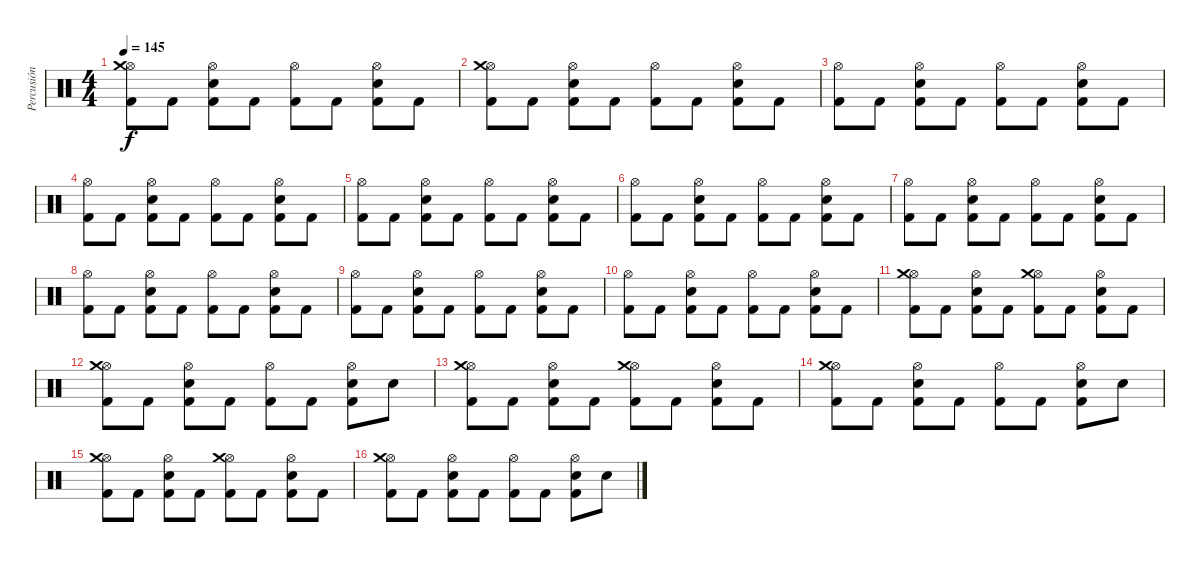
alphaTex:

\track ("Percusión" "Percusión") {instrument percussion}
\staff {score}
\articulation defaults
\ts (4 4)
\tempo 145
\clef neutral
\ks c
("Hi-Hat (open)" "Kick (hit) 2" "Crash medium (hit)").8{dy f} "Kick (hit) 2".8 ("Hi-Hat (open)" "Electric Snare (hit)" "Kick (hit) 2").8 "Kick (hit) 2".8 ("Hi-Hat (open)" "Kick (hit) 2").8 "Kick (hit) 2".8 ("Hi-Hat (open)" "Electric Snare (hit)" "Kick (hit) 2").8 "Kick (hit) 2".8 |
("Hi-Hat (open)" "Kick (hit) 2" "Crash medium (hit)").8 "Kick (hit) 2".8 ("Hi-Hat (open)" "Electric Snare (hit)" "Kick (hit) 2").8 "Kick (hit) 2".8 ("Hi-Hat (open)" "Kick (hit) 2").8 "Kick (hit) 2".8 ("Hi-Hat (open)" "Electric Snare (hit)" "Kick (hit) 2").8 "Kick (hit) 2".8 |
("Hi-Hat (open)" "Kick (hit) 2").8 "Kick (hit) 2".8 ("Hi-Hat (open)" "Electric Snare (hit)" "Kick (hit) 2").8 "Kick (hit) 2".8 ("Hi-Hat (open)" "Kick (hit) 2").8 "Kick (hit) 2".8 ("Hi-Hat (open)" "Electric Snare (hit)" "Kick (hit) 2").8 "Kick (hit) 2".8 |
("Hi-Hat (open)" "Kick (hit) 2").8 "Kick (hit) 2".8 ("Hi-Hat (open)" "Electric Snare (hit)" "Kick (hit) 2").8 "Kick (hit) 2".8 ("Hi-Hat (open)" "Kick (hit) 2").8 "Kick (hit) 2".8 ("Hi-Hat (open)" "Electric Snare (hit)" "Kick (hit) 2").8 "Kick (hit) 2".8 |
("Hi-Hat (open)" "Kick (hit) 2").8 "Kick (hit) 2".8 ("Hi-Hat (open)" "Electric Snare (hit)" "Kick (hit) 2").8 "Kick (hit) 2".8 ("Hi-Hat (open)" "Kick (hit) 2").8 "Kick (hit) 2".8 ("Hi-Hat (open)" "Electric Snare (hit)" "Kick (hit) 2").8 "Kick (hit) 2".8 |
("Hi-Hat (open)" "Kick (hit) 2").8 "Kick (hit) 2".8 ("Hi-Hat (open)" "Electric Snare (hit)" "Kick (hit) 2").8 "Kick (hit) 2".8 ("Hi-Hat (open)" "Kick (hit) 2").8 "Kick (hit) 2".8 ("Hi-Hat (open)" "Electric Snare (hit)" "Kick (hit) 2").8 "Kick (hit) 2".8 |
("Hi-Hat (open)" "Kick (hit) 2").8 "Kick (hit) 2".8 ("Hi-Hat (open)" "Electric Snare (hit)" "Kick (hit) 2").8 "Kick (hit) 2".8 ("Hi-Hat (open)" "Kick (hit) 2").8 "Kick (hit) 2".8 ("Hi-Hat (open)" "Electric Snare (hit)" "Kick (hit) 2").8 "Kick (hit) 2".8 |
("Hi-Hat (open)" "Kick (hit) 2").8 "Kick (hit) 2".8 ("Hi-Hat (open)" "Electric Snare (hit)" "Kick (hit) 2").8 "Kick (hit) 2".8 ("Hi-Hat (open)" "Kick (hit) 2").8 "Kick (hit) 2".8 ("Hi-Hat (open)" "Electric Snare (hit)" "Kick (hit) 2").8 "Kick (hit) 2".8 |
("Hi-Hat (open)" "Kick (hit) 2").8 "Kick (hit) 2".8 ("Hi-Hat (open)" "Electric Snare (hit)" "Kick (hit) 2").8 "Kick (hit) 2".8 ("Hi-Hat (open)" "Kick (hit) 2").8 "Kick (hit) 2".8 ("Hi-Hat (open)" "Electric Snare (hit)" "Kick (hit) 2").8 "Kick (hit) 2".8 |
("Hi-Hat (open)" "Kick (hit) 2").8 "Kick (hit) 2".8 ("Hi-Hat (open)" "Electric Snare (hit)" "Kick (hit) 2").8 "Kick (hit) 2".8 ("Hi-Hat (open)" "Kick (hit) 2").8 "Kick (hit) 2".8 ("Hi-Hat (open)" "Electric Snare (hit)" "Kick (hit) 2").8 "Kick (hit) 2".8 |
("Hi-Hat (open)" "Kick (hit) 2" "Crash medium (hit)").8 "Kick (hit) 2".8 ("Hi-Hat (open)" "Electric Snare (hit)" "Kick (hit) 2").8 "Kick (hit) 2".8 ("Hi-Hat (open)" "Kick (hit) 2" "Crash medium (hit)").8 "Kick (hit) 2".8 ("Hi-Hat (open)" "Electric Snare (hit)" "Kick (hit) 2").8 "Kick (hit) 2".8 |
("Hi-Hat (open)" "Kick (hit) 2" "Crash medium (hit)").8 "Kick (hit) 2".8 ("Hi-Hat (open)" "Electric Snare (hit)" "Kick (hit) 2").8 "Kick (hit) 2".8 ("Hi-Hat (open)" "Kick (hit) 2").8 "Kick (hit) 2".8 ("Hi-Hat (open)" "Electric Snare (hit)" "Kick (hit) 2").8 "Electric Snare (hit)".8 |
("Hi-Hat (open)" "Kick (hit) 2" "Crash medium (hit)").8 "Kick (hit) 2".8 ("Hi-Hat (open)" "Electric Snare (hit)" "Kick (hit) 2").8 "Kick (hit) 2".8 ("Hi-Hat (open)" "Kick (hit) 2" "Crash medium (hit)").8 "Kick (hit) 2".8 ("Hi-Hat (open)" "Electric Snare (hit)" "Kick (hit) 2").8 "Kick (hit) 2".8 |
("Hi-Hat (open)" "Kick (hit) 2" "Crash medium (hit)").8 "Kick (hit) 2".8 ("Hi-Hat (open)" "Electric Snare (hit)" "Kick (hit) 2").8 "Kick (hit) 2".8 ("Hi-Hat (open)" "Kick (hit) 2").8 "Kick (hit) 2".8 ("Hi-Hat (open)" "Electric Snare (hit)" "Kick (hit) 2").8 "Electric Snare (hit)".8 |
("Hi-Hat (open)" "Kick (hit) 2" "Crash medium (hit)").8 "Kick (hit) 2".8 ("Hi-Hat (open)" "Electric Snare (hit)" "Kick (hit) 2").8 "Kick (hit) 2".8 ("Hi-Hat (open)" "Kick (hit) 2" "Crash medium (hit)").8 "Kick (hit) 2".8 ("Hi-Hat (open)" "Electric Snare (hit)" "Kick (hit) 2").8 "Kick (hit) 2".8 |
("Hi-Hat (open)" "Kick (hit) 2" "Crash medium (hit)").8 "Kick (hit) 2".8 ("Hi-Hat (open)" "Electric Snare (hit)" "Kick (hit) 2").8 "Kick (hit) 2".8 ("Hi-Hat (open)" "Kick (hit) 2").8 "Kick (hit) 2".8 ("Hi-Hat (open)" "Electric Snare (hit)" "Kick (hit) 2").8 "Electric Snare (hit)".8
